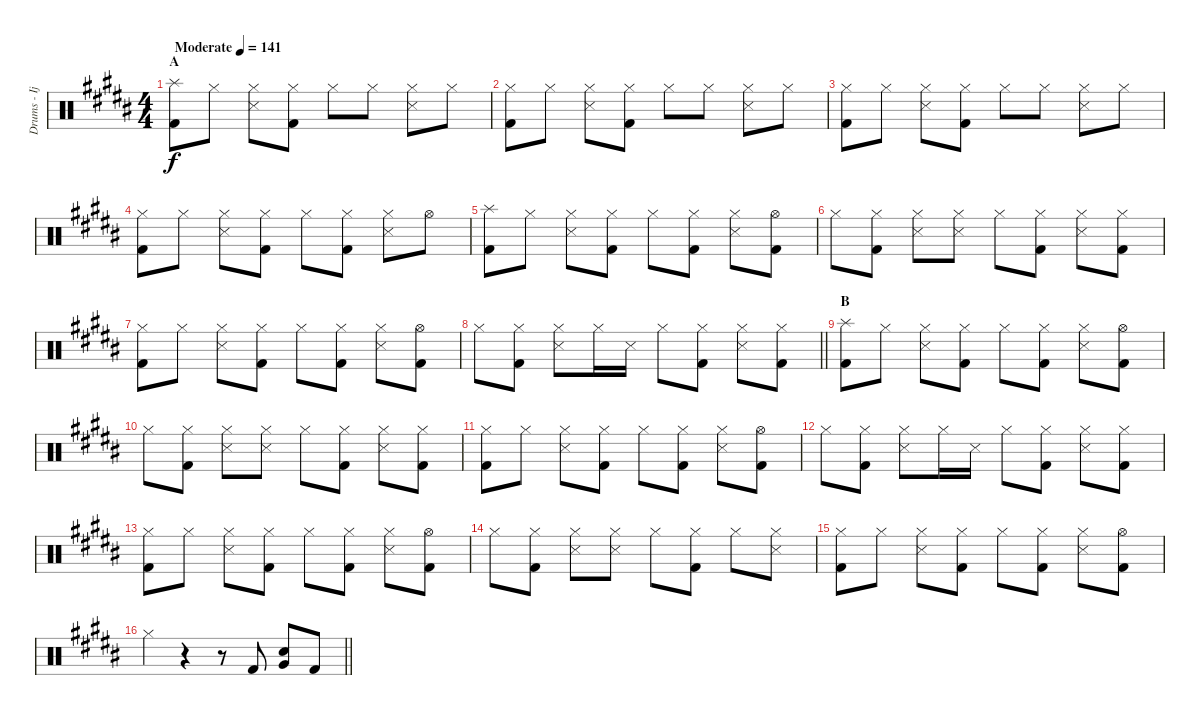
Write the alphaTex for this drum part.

\track ("Drums - Ijichi" "Drums - Ij") {instrument percussion}
\staff {score}
\articulation defaults
\ts (4 4)
\section ("" "A")
\tempo (141 "Moderate")
\clef neutral
\ks b
("Splash (hit)" "Kick (hit) 2").8{dy f} "Hi-Hat (closed)".8 ("Hi-Hat (closed)" "Snare (side stick) 3").8 ("Hi-Hat (closed)" "Kick (hit) 2").8 "Hi-Hat (closed)".8 "Hi-Hat (closed)".8 ("Hi-Hat (closed)" "Snare (side stick) 3").8 "Hi-Hat (closed)".8 |
("Hi-Hat (closed)" "Kick (hit) 2").8 "Hi-Hat (closed)".8 ("Hi-Hat (closed)" "Snare (side stick) 3").8 ("Hi-Hat (closed)" "Kick (hit) 2").8 "Hi-Hat (closed)".8 "Hi-Hat (closed)".8 ("Hi-Hat (closed)" "Snare (side stick) 3").8 "Hi-Hat (closed)".8 |
("Hi-Hat (closed)" "Kick (hit) 2").8 "Hi-Hat (closed)".8 ("Hi-Hat (closed)" "Snare (side stick) 3").8 ("Hi-Hat (closed)" "Kick (hit) 2").8 "Hi-Hat (closed)".8 "Hi-Hat (closed)".8 ("Hi-Hat (closed)" "Snare (side stick) 3").8 "Hi-Hat (closed)".8 |
("Hi-Hat (closed)" "Kick (hit) 2").8 "Hi-Hat (closed)".8 ("Hi-Hat (closed)" "Snare (side stick) 3").8 ("Hi-Hat (closed)" "Kick (hit) 2").8 "Hi-Hat (closed)".8 ("Hi-Hat (closed)" "Kick (hit) 2").8 ("Hi-Hat (closed)" "Snare (side stick) 3").8 "Hi-Hat (open)".8 |
("Splash (hit)" "Kick (hit) 2").8 "Hi-Hat (closed)".8 ("Hi-Hat (closed)" "Snare (side stick) 3").8 ("Hi-Hat (closed)" "Kick (hit) 2").8 "Hi-Hat (closed)".8 ("Hi-Hat (closed)" "Kick (hit) 2").8 ("Hi-Hat (closed)" "Snare (side stick) 3").8 ("Hi-Hat (open)" "Kick (hit) 2").8 |
"Hi-Hat (closed)".8 ("Hi-Hat (closed)" "Kick (hit) 2").8 ("Hi-Hat (closed)" "Snare (side stick) 3").8 ("Hi-Hat (closed)" "Snare (side stick) 3").8 "Hi-Hat (closed)".8 ("Hi-Hat (closed)" "Kick (hit) 2").8 ("Hi-Hat (closed)" "Snare (side stick) 3").8 ("Hi-Hat (closed)" "Kick (hit) 2").8 |
("Hi-Hat (closed)" "Kick (hit) 2").8 "Hi-Hat (closed)".8 ("Hi-Hat (closed)" "Snare (side stick) 3").8 ("Hi-Hat (closed)" "Kick (hit) 2").8 "Hi-Hat (closed)".8 ("Hi-Hat (closed)" "Kick (hit) 2").8 ("Hi-Hat (closed)" "Snare (side stick) 3").8 ("Hi-Hat (open)" "Kick (hit) 2").8 |
\barLineRight lightlight "Hi-Hat (closed)".8
("Hi-Hat (closed)" "Kick (hit) 2").8 ("Hi-Hat (closed)" "Snare (side stick) 3").8 "Hi-Hat (closed)".16 "Snare (side stick) 3".16 "Hi-Hat (closed)".8 ("Hi-Hat (closed)" "Kick (hit) 2").8 ("Hi-Hat (closed)" "Snare (side stick) 3").8 ("Hi-Hat (closed)" "Kick (hit) 2").8 |
\section ("" "B")
("Splash (hit)" "Kick (hit) 2").8 "Hi-Hat (closed)".8 ("Hi-Hat (closed)" "Snare (side stick) 3").8 ("Hi-Hat (closed)" "Kick (hit) 2").8 "Hi-Hat (closed)".8 ("Hi-Hat (closed)" "Kick (hit) 2").8 ("Hi-Hat (closed)" "Snare (side stick) 3").8 ("Hi-Hat (open)" "Kick (hit) 2").8 |
"Hi-Hat (closed)".8 ("Hi-Hat (closed)" "Kick (hit) 2").8 ("Hi-Hat (closed)" "Snare (side stick) 3").8 ("Hi-Hat (closed)" "Snare (side stick) 3").8 "Hi-Hat (closed)".8 ("Hi-Hat (closed)" "Kick (hit) 2").8 ("Hi-Hat (closed)" "Snare (side stick) 3").8 ("Hi-Hat (closed)" "Kick (hit) 2").8 |
("Hi-Hat (closed)" "Kick (hit) 2").8 "Hi-Hat (closed)".8 ("Hi-Hat (closed)" "Snare (side stick) 3").8 ("Hi-Hat (closed)" "Kick (hit) 2").8 "Hi-Hat (closed)".8 ("Hi-Hat (closed)" "Kick (hit) 2").8 ("Hi-Hat (closed)" "Snare (side stick) 3").8 ("Hi-Hat (open)" "Kick (hit) 2").8 |
"Hi-Hat (closed)".8 ("Hi-Hat (closed)" "Kick (hit) 2").8 ("Hi-Hat (closed)" "Snare (side stick) 3").8 "Hi-Hat (closed)".16 "Snare (side stick) 3".16 "Hi-Hat (closed)".8 ("Hi-Hat (closed)" "Kick (hit) 2").8 ("Hi-Hat (closed)" "Snare (side stick) 3").8 ("Hi-Hat (closed)" "Kick (hit) 2").8 |
("Hi-Hat (closed)" "Kick (hit) 2").8 "Hi-Hat (closed)".8 ("Hi-Hat (closed)" "Snare (side stick) 3").8 ("Hi-Hat (closed)" "Kick (hit) 2").8 "Hi-Hat (closed)".8 ("Hi-Hat (closed)" "Kick (hit) 2").8 ("Hi-Hat (closed)" "Snare (side stick) 3").8 ("Hi-Hat (open)" "Kick (hit) 2").8 |
"Hi-Hat (closed)".8 ("Hi-Hat (closed)" "Kick (hit) 2").8 ("Hi-Hat (closed)" "Snare (side stick) 3").8 ("Hi-Hat (closed)" "Snare (side stick) 3").8 "Hi-Hat (closed)".8 ("Hi-Hat (closed)" "Kick (hit) 2").8 "Hi-Hat (closed)".8 ("Hi-Hat (closed)" "Snare (side stick) 3").8 |
("Hi-Hat (closed)" "Kick (hit) 2").8 "Hi-Hat (closed)".8 ("Hi-Hat (closed)" "Snare (side stick) 3").8 ("Hi-Hat (closed)" "Kick (hit) 2").8 "Hi-Hat (closed)".8 ("Hi-Hat (closed)" "Kick (hit) 2").8 ("Hi-Hat (closed)" "Snare (side stick) 3").8 ("Hi-Hat (open)" "Kick (hit) 2").8 |
\barLineRight lightlight "Hi-Hat (closed)".4
r.4 r.8 "Kick (hit) 2".8 ("Electric Snare (hit)" "Very Low Tom (hit)").8 "Kick (hit) 2".8
